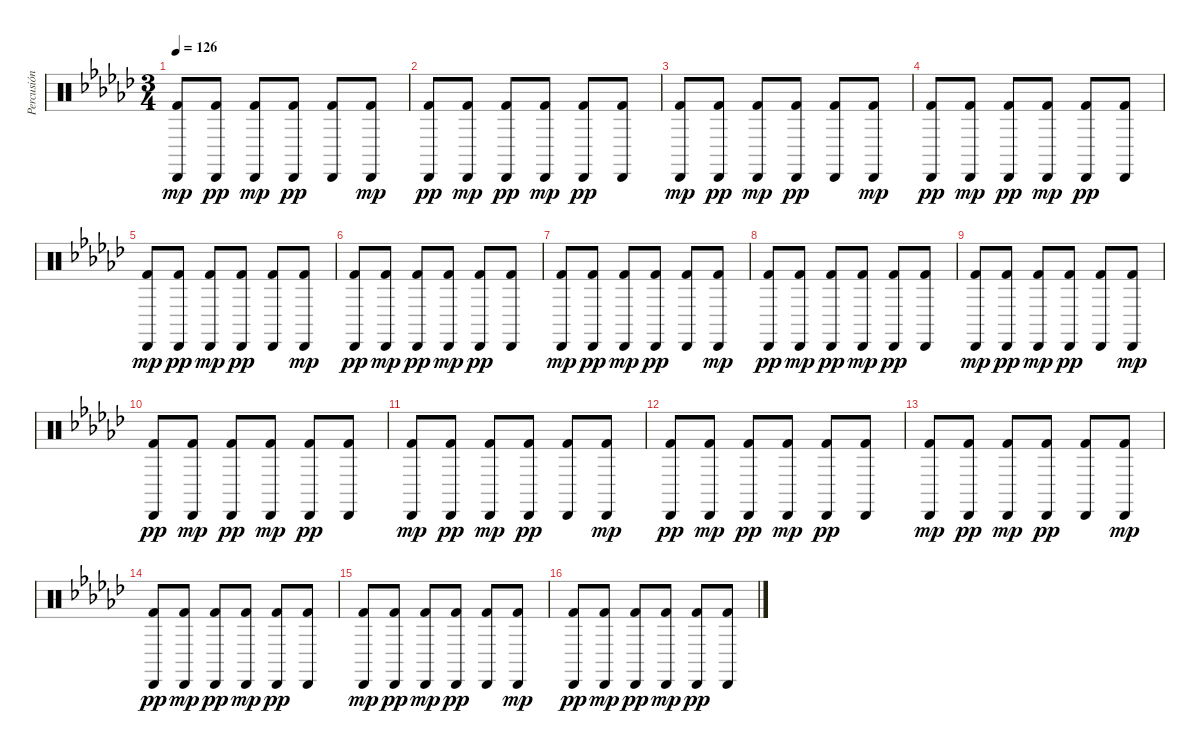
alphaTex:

\track ("Percusión" "Percusión") {instrument percussion}
\staff {score}
\articulation defaults
\ts (3 4)
\tempo 126
\clef neutral
\ks ebminor
("Cabasa (hit)" "Kick (hit) 2").8{dy mp} ("Cabasa (hit)" "Kick (hit) 2").8{dy pp} ("Cabasa (hit)" "Kick (hit) 2").8{dy mp} ("Cabasa (hit)" "Kick (hit) 2").8{dy pp} ("Cabasa (hit)" "Kick (hit) 2").8 ("Cabasa (hit)" "Kick (hit) 2").8{dy mp} |
("Cabasa (hit)" "Kick (hit) 2").8{dy pp} ("Cabasa (hit)" "Kick (hit) 2").8{dy mp} ("Cabasa (hit)" "Kick (hit) 2").8{dy pp} ("Cabasa (hit)" "Kick (hit) 2").8{dy mp} ("Cabasa (hit)" "Kick (hit) 2").8{dy pp} ("Cabasa (hit)" "Kick (hit) 2").8 |
("Cabasa (hit)" "Kick (hit) 2").8{dy mp} ("Cabasa (hit)" "Kick (hit) 2").8{dy pp} ("Cabasa (hit)" "Kick (hit) 2").8{dy mp} ("Cabasa (hit)" "Kick (hit) 2").8{dy pp} ("Cabasa (hit)" "Kick (hit) 2").8 ("Cabasa (hit)" "Kick (hit) 2").8{dy mp} |
("Cabasa (hit)" "Kick (hit) 2").8{dy pp} ("Cabasa (hit)" "Kick (hit) 2").8{dy mp} ("Cabasa (hit)" "Kick (hit) 2").8{dy pp} ("Cabasa (hit)" "Kick (hit) 2").8{dy mp} ("Cabasa (hit)" "Kick (hit) 2").8{dy pp} ("Cabasa (hit)" "Kick (hit) 2").8 |
("Cabasa (hit)" "Kick (hit) 2").8{dy mp} ("Cabasa (hit)" "Kick (hit) 2").8{dy pp} ("Cabasa (hit)" "Kick (hit) 2").8{dy mp} ("Cabasa (hit)" "Kick (hit) 2").8{dy pp} ("Cabasa (hit)" "Kick (hit) 2").8 ("Cabasa (hit)" "Kick (hit) 2").8{dy mp} |
("Cabasa (hit)" "Kick (hit) 2").8{dy pp} ("Cabasa (hit)" "Kick (hit) 2").8{dy mp} ("Cabasa (hit)" "Kick (hit) 2").8{dy pp} ("Cabasa (hit)" "Kick (hit) 2").8{dy mp} ("Cabasa (hit)" "Kick (hit) 2").8{dy pp} ("Cabasa (hit)" "Kick (hit) 2").8 |
("Cabasa (hit)" "Kick (hit) 2").8{dy mp} ("Cabasa (hit)" "Kick (hit) 2").8{dy pp} ("Cabasa (hit)" "Kick (hit) 2").8{dy mp} ("Cabasa (hit)" "Kick (hit) 2").8{dy pp} ("Cabasa (hit)" "Kick (hit) 2").8 ("Cabasa (hit)" "Kick (hit) 2").8{dy mp} |
("Cabasa (hit)" "Kick (hit) 2").8{dy pp} ("Cabasa (hit)" "Kick (hit) 2").8{dy mp} ("Cabasa (hit)" "Kick (hit) 2").8{dy pp} ("Cabasa (hit)" "Kick (hit) 2").8{dy mp} ("Cabasa (hit)" "Kick (hit) 2").8{dy pp} ("Cabasa (hit)" "Kick (hit) 2").8 |
("Cabasa (hit)" "Kick (hit) 2").8{dy mp} ("Cabasa (hit)" "Kick (hit) 2").8{dy pp} ("Cabasa (hit)" "Kick (hit) 2").8{dy mp} ("Cabasa (hit)" "Kick (hit) 2").8{dy pp} ("Cabasa (hit)" "Kick (hit) 2").8 ("Cabasa (hit)" "Kick (hit) 2").8{dy mp} |
("Cabasa (hit)" "Kick (hit) 2").8{dy pp} ("Cabasa (hit)" "Kick (hit) 2").8{dy mp} ("Cabasa (hit)" "Kick (hit) 2").8{dy pp} ("Cabasa (hit)" "Kick (hit) 2").8{dy mp} ("Cabasa (hit)" "Kick (hit) 2").8{dy pp} ("Cabasa (hit)" "Kick (hit) 2").8 |
("Cabasa (hit)" "Kick (hit) 2").8{dy mp} ("Cabasa (hit)" "Kick (hit) 2").8{dy pp} ("Cabasa (hit)" "Kick (hit) 2").8{dy mp} ("Cabasa (hit)" "Kick (hit) 2").8{dy pp} ("Cabasa (hit)" "Kick (hit) 2").8 ("Cabasa (hit)" "Kick (hit) 2").8{dy mp} |
("Cabasa (hit)" "Kick (hit) 2").8{dy pp} ("Cabasa (hit)" "Kick (hit) 2").8{dy mp} ("Cabasa (hit)" "Kick (hit) 2").8{dy pp} ("Cabasa (hit)" "Kick (hit) 2").8{dy mp} ("Cabasa (hit)" "Kick (hit) 2").8{dy pp} ("Cabasa (hit)" "Kick (hit) 2").8 |
("Cabasa (hit)" "Kick (hit) 2").8{dy mp} ("Cabasa (hit)" "Kick (hit) 2").8{dy pp} ("Cabasa (hit)" "Kick (hit) 2").8{dy mp} ("Cabasa (hit)" "Kick (hit) 2").8{dy pp} ("Cabasa (hit)" "Kick (hit) 2").8 ("Cabasa (hit)" "Kick (hit) 2").8{dy mp} |
("Cabasa (hit)" "Kick (hit) 2").8{dy pp} ("Cabasa (hit)" "Kick (hit) 2").8{dy mp} ("Cabasa (hit)" "Kick (hit) 2").8{dy pp} ("Cabasa (hit)" "Kick (hit) 2").8{dy mp} ("Cabasa (hit)" "Kick (hit) 2").8{dy pp} ("Cabasa (hit)" "Kick (hit) 2").8 |
("Cabasa (hit)" "Kick (hit) 2").8{dy mp} ("Cabasa (hit)" "Kick (hit) 2").8{dy pp} ("Cabasa (hit)" "Kick (hit) 2").8{dy mp} ("Cabasa (hit)" "Kick (hit) 2").8{dy pp} ("Cabasa (hit)" "Kick (hit) 2").8 ("Cabasa (hit)" "Kick (hit) 2").8{dy mp} |
("Cabasa (hit)" "Kick (hit) 2").8{dy pp} ("Cabasa (hit)" "Kick (hit) 2").8{dy mp} ("Cabasa (hit)" "Kick (hit) 2").8{dy pp} ("Cabasa (hit)" "Kick (hit) 2").8{dy mp} ("Cabasa (hit)" "Kick (hit) 2").8{dy pp} ("Cabasa (hit)" "Kick (hit) 2").8
